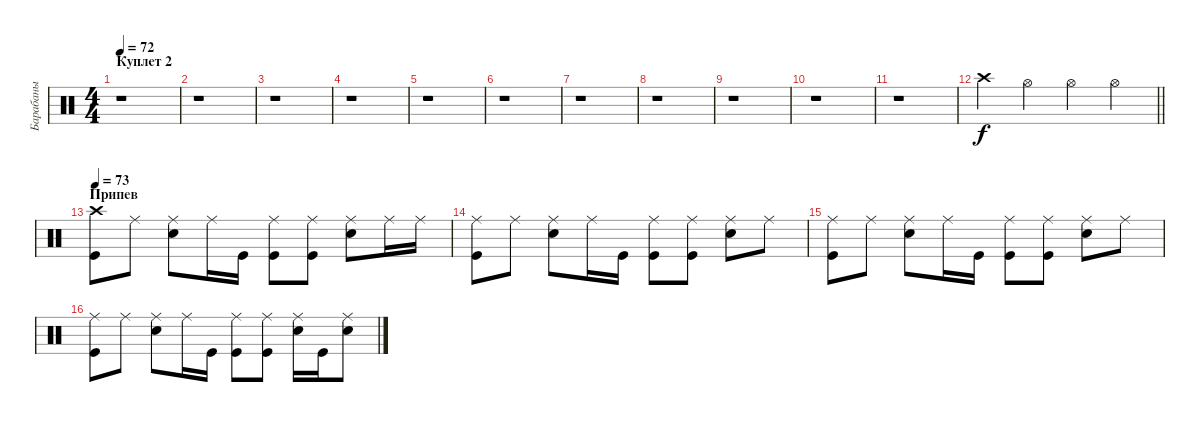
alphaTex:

\track ("Барабаны" "Барабаны") {instrument percussion}
\staff {score}
\articulation defaults
\ts (4 4)
\section ("" "Куплет 2")
\tempo 72
\clef neutral
\ks c
r.1{dy f} |
r.1 |
r.1 |
r.1 |
r.1 |
r.1 |
r.1 |
r.1 |
r.1 |
r.1 |
r.1 |
\barLineRight lightlight "Crash high (hit)".4 "Hi-Hat (open)".4 "Hi-Hat (open)".4 "Hi-Hat (open)".4
|
\section ("" "Припев")
\tempo 73
("Kick (hit)" "Crash high (hit)").8 "Ride (middle)".8 ("Snare (hit) 2" "Ride (middle)").8 "Ride (middle)".16 "Kick (hit)".16 ("Kick (hit)" "Ride (middle)").8 ("Kick (hit)" "Ride (middle)").8 ("Snare (hit) 2" "Ride (middle)").8 "Ride (middle)".16 "Ride (middle)".16 |
("Kick (hit)" "Ride (middle)").8 "Ride (middle)".8 ("Snare (hit) 2" "Ride (middle)").8 "Ride (middle)".16 "Kick (hit)".16 ("Kick (hit)" "Ride (middle)").8 ("Kick (hit)" "Ride (middle)").8 ("Snare (hit) 2" "Ride (middle)").8 "Ride (middle)".8 |
("Kick (hit)" "Ride (middle)").8 "Ride (middle)".8 ("Snare (hit) 2" "Ride (middle)").8 "Ride (middle)".16 "Kick (hit)".16 ("Kick (hit)" "Ride (middle)").8 ("Kick (hit)" "Ride (middle)").8 ("Snare (hit) 2" "Ride (middle)").8 "Ride (middle)".8 |
("Kick (hit)" "Ride (middle)").8 "Ride (middle)".8 ("Snare (hit) 2" "Ride (middle)").8 "Ride (middle)".16 "Kick (hit)".16 ("Kick (hit)" "Ride (middle)").8 ("Kick (hit)" "Ride (middle)").8 ("Snare (hit) 2" "Ride (middle)").16 "Kick (hit)".16 ("Snare (hit) 2" "Ride (middle)").8
